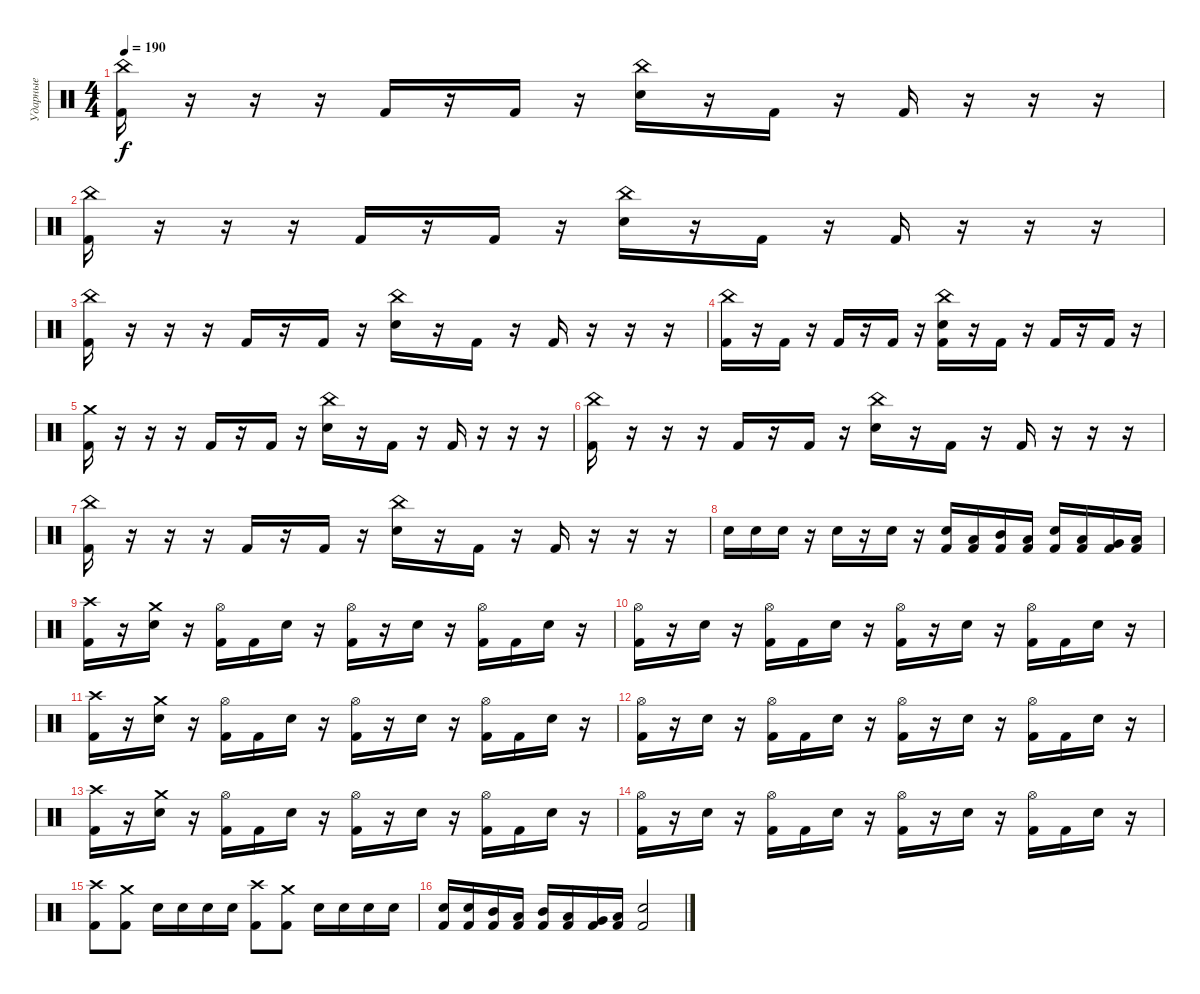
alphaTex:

\track ("Ударные" "Ударные") {instrument percussion}
\staff {score}
\articulation defaults
\ts (4 4)
\tempo 190
\clef neutral
\ks c
("China (hit)" "Kick (hit) 2").16{dy f} r.16 r.16 r.16 "Kick (hit) 2".16 r.16 "Kick (hit) 2".16 r.16 ("China (hit)" "Snare (hit) 2").16 r.16 "Kick (hit) 2".16 r.16 "Kick (hit) 2".16 r.16 r.16 r.16 |
("China (hit)" "Kick (hit) 2").16 r.16 r.16 r.16 "Kick (hit) 2".16 r.16 "Kick (hit) 2".16 r.16 ("China (hit)" "Snare (hit) 2").16 r.16 "Kick (hit) 2".16 r.16 "Kick (hit) 2".16 r.16 r.16 r.16 |
("China (hit)" "Kick (hit) 2").16 r.16 r.16 r.16 "Kick (hit) 2".16 r.16 "Kick (hit) 2".16 r.16 ("China (hit)" "Snare (hit) 2").16 r.16 "Kick (hit) 2".16 r.16 "Kick (hit) 2".16 r.16 r.16 r.16 |
("China (hit)" "Kick (hit) 2").16 r.16 "Kick (hit) 2".16 r.16 "Kick (hit) 2".16 r.16 "Kick (hit) 2".16 r.16 ("Snare (hit) 2" "China (hit)" "Kick (hit) 2").16 r.16 "Kick (hit) 2".16 r.16 "Kick (hit) 2".16 r.16 "Kick (hit) 2".16 r.16 |
("Crash medium (hit)" "Kick (hit) 2").16 r.16 r.16 r.16 "Kick (hit) 2".16 r.16 "Kick (hit) 2".16 r.16 ("China (hit)" "Snare (hit) 2").16 r.16 "Kick (hit) 2".16 r.16 "Kick (hit) 2".16 r.16 r.16 r.16 |
("China (hit)" "Kick (hit) 2").16 r.16 r.16 r.16 "Kick (hit) 2".16 r.16 "Kick (hit) 2".16 r.16 ("China (hit)" "Snare (hit) 2").16 r.16 "Kick (hit) 2".16 r.16 "Kick (hit) 2".16 r.16 r.16 r.16 |
("China (hit)" "Kick (hit) 2").16 r.16 r.16 r.16 "Kick (hit) 2".16 r.16 "Kick (hit) 2".16 r.16 ("China (hit)" "Snare (hit) 2").16 r.16 "Kick (hit) 2".16 r.16 "Kick (hit) 2".16 r.16 r.16 r.16 |
"Snare (hit) 2".16 "Snare (hit) 2".16 "Snare (hit) 2".16 r.16 "Snare (hit) 2".16 r.16 "Snare (hit) 2".16 r.16 ("Snare (hit) 2" "Kick (hit) 2").16 ("Low Tom (hit)" "Kick (hit) 2").16 ("Mid Tom (hit)" "Kick (hit) 2").16 ("Low Tom (hit)" "Kick (hit) 2").16 ("Snare (hit) 2" "Kick (hit) 2").16 ("Low Tom (hit)" "Kick (hit) 2").16 ("Very Low Tom (hit)" "Kick (hit) 2").16 ("Low Floor Tom (hit)" "Kick (hit) 2").16 |
("Crash high (hit)" "Kick (hit) 2").16 r.16 ("Crash medium (hit)" "Snare (hit) 2").16 r.16 ("Hi-Hat (open)" "Kick (hit) 2").16 "Kick (hit) 2".16 "Snare (hit) 2".16 r.16 ("Hi-Hat (open)" "Kick (hit) 2").16 r.16 "Snare (hit) 2".16 r.16 ("Hi-Hat (open)" "Kick (hit) 2").16 "Kick (hit) 2".16 "Snare (hit) 2".16 r.16 |
("Hi-Hat (open)" "Kick (hit) 2").16 r.16 "Snare (hit) 2".16 r.16 ("Hi-Hat (open)" "Kick (hit) 2").16 "Kick (hit) 2".16 "Snare (hit) 2".16 r.16 ("Hi-Hat (open)" "Kick (hit) 2").16 r.16 "Snare (hit) 2".16 r.16 ("Hi-Hat (open)" "Kick (hit) 2").16 "Kick (hit) 2".16 "Snare (hit) 2".16 r.16 |
("Crash high (hit)" "Kick (hit) 2").16 r.16 ("Crash medium (hit)" "Snare (hit) 2").16 r.16 ("Hi-Hat (open)" "Kick (hit) 2").16 "Kick (hit) 2".16 "Snare (hit) 2".16 r.16 ("Hi-Hat (open)" "Kick (hit) 2").16 r.16 "Snare (hit) 2".16 r.16 ("Hi-Hat (open)" "Kick (hit) 2").16 "Kick (hit) 2".16 "Snare (hit) 2".16 r.16 |
("Hi-Hat (open)" "Kick (hit) 2").16 r.16 "Snare (hit) 2".16 r.16 ("Hi-Hat (open)" "Kick (hit) 2").16 "Kick (hit) 2".16 "Snare (hit) 2".16 r.16 ("Hi-Hat (open)" "Kick (hit) 2").16 r.16 "Snare (hit) 2".16 r.16 ("Hi-Hat (open)" "Kick (hit) 2").16 "Kick (hit) 2".16 "Snare (hit) 2".16 r.16 |
("Crash high (hit)" "Kick (hit) 2").16 r.16 ("Crash medium (hit)" "Snare (hit) 2").16 r.16 ("Hi-Hat (open)" "Kick (hit) 2").16 "Kick (hit) 2".16 "Snare (hit) 2".16 r.16 ("Hi-Hat (open)" "Kick (hit) 2").16 r.16 "Snare (hit) 2".16 r.16 ("Hi-Hat (open)" "Kick (hit) 2").16 "Kick (hit) 2".16 "Snare (hit) 2".16 r.16 |
("Hi-Hat (open)" "Kick (hit) 2").16 r.16 "Snare (hit) 2".16 r.16 ("Hi-Hat (open)" "Kick (hit) 2").16 "Kick (hit) 2".16 "Snare (hit) 2".16 r.16 ("Hi-Hat (open)" "Kick (hit) 2").16 r.16 "Snare (hit) 2".16 r.16 ("Hi-Hat (open)" "Kick (hit) 2").16 "Kick (hit) 2".16 "Snare (hit) 2".16 r.16 |
("Kick (hit) 2" "Crash high (hit)").8 ("Crash medium (hit)" "Kick (hit) 2").8 "Snare (hit) 2".16 "Snare (hit) 2".16 "Snare (hit) 2".16 "Snare (hit) 2".16 ("Kick (hit) 2" "Crash high (hit)").8 ("Crash medium (hit)" "Kick (hit) 2").8 "Snare (hit) 2".16 "Snare (hit) 2".16 "Snare (hit) 2".16 "Snare (hit) 2".16 |
("Snare (hit) 2" "Kick (hit) 2").16 ("Snare (hit) 2" "Kick (hit) 2").16 ("Mid Tom (hit)" "Kick (hit) 2").16 ("Low Tom (hit)" "Kick (hit) 2").16 ("Mid Tom (hit)" "Kick (hit) 2").16 ("Low Tom (hit)" "Kick (hit) 2").16 ("Very Low Tom (hit)" "Kick (hit) 2").16 ("Low Floor Tom (hit)" "Kick (hit) 2").16 ("Snare (hit) 2" "Kick (hit) 2").2
